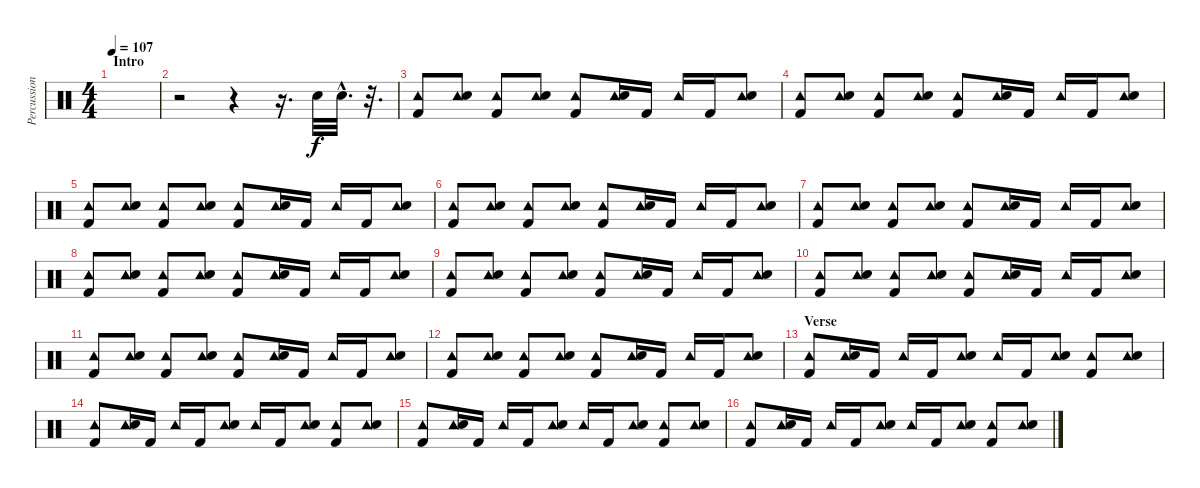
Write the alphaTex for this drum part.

\track ("Percussion" "Percussion") {instrument percussion}
\staff {score}
\articulation defaults
\ts (4 4)
\section ("" "Intro")
\tempo 107
\clef neutral
\ks c
|
r.2 r.4 r.16{d} "Electric Snare (hit)".32 "Electric Snare (hit)"{hac}.32{d} r.32{d} |
("Tambourine (hit)" "Kick (hit) 2").8 ("Tambourine (hit)" "Electric Snare (hit)").8 ("Tambourine (hit)" "Kick (hit) 2").8 ("Tambourine (hit)" "Electric Snare (hit)").8 ("Tambourine (hit)" "Kick (hit) 2").8 ("Tambourine (hit)" "Electric Snare (hit)").16 "Kick (hit) 2".16 "Tambourine (hit)".16 "Kick (hit) 2".16 ("Tambourine (hit)" "Electric Snare (hit)").8 |
("Tambourine (hit)" "Kick (hit) 2").8 ("Tambourine (hit)" "Electric Snare (hit)").8 ("Tambourine (hit)" "Kick (hit) 2").8 ("Tambourine (hit)" "Electric Snare (hit)").8 ("Tambourine (hit)" "Kick (hit) 2").8 ("Tambourine (hit)" "Electric Snare (hit)").16 "Kick (hit) 2".16 "Tambourine (hit)".16 "Kick (hit) 2".16 ("Tambourine (hit)" "Electric Snare (hit)").8 |
("Tambourine (hit)" "Kick (hit) 2").8 ("Tambourine (hit)" "Electric Snare (hit)").8 ("Tambourine (hit)" "Kick (hit) 2").8 ("Tambourine (hit)" "Electric Snare (hit)").8 ("Tambourine (hit)" "Kick (hit) 2").8 ("Tambourine (hit)" "Electric Snare (hit)").16 "Kick (hit) 2".16 "Tambourine (hit)".16 "Kick (hit) 2".16 ("Tambourine (hit)" "Electric Snare (hit)").8 |
("Tambourine (hit)" "Kick (hit) 2").8 ("Tambourine (hit)" "Electric Snare (hit)").8 ("Tambourine (hit)" "Kick (hit) 2").8 ("Tambourine (hit)" "Electric Snare (hit)").8 ("Tambourine (hit)" "Kick (hit) 2").8 ("Tambourine (hit)" "Electric Snare (hit)").16 "Kick (hit) 2".16 "Tambourine (hit)".16 "Kick (hit) 2".16 ("Tambourine (hit)" "Electric Snare (hit)").8 |
("Tambourine (hit)" "Kick (hit) 2").8 ("Tambourine (hit)" "Electric Snare (hit)").8 ("Tambourine (hit)" "Kick (hit) 2").8 ("Tambourine (hit)" "Electric Snare (hit)").8 ("Tambourine (hit)" "Kick (hit) 2").8 ("Tambourine (hit)" "Electric Snare (hit)").16 "Kick (hit) 2".16 "Tambourine (hit)".16 "Kick (hit) 2".16 ("Tambourine (hit)" "Electric Snare (hit)").8 |
("Tambourine (hit)" "Kick (hit) 2").8 ("Tambourine (hit)" "Electric Snare (hit)").8 ("Tambourine (hit)" "Kick (hit) 2").8 ("Tambourine (hit)" "Electric Snare (hit)").8 ("Tambourine (hit)" "Kick (hit) 2").8 ("Tambourine (hit)" "Electric Snare (hit)").16 "Kick (hit) 2".16 "Tambourine (hit)".16 "Kick (hit) 2".16 ("Tambourine (hit)" "Electric Snare (hit)").8 |
("Tambourine (hit)" "Kick (hit) 2").8 ("Tambourine (hit)" "Electric Snare (hit)").8 ("Tambourine (hit)" "Kick (hit) 2").8 ("Tambourine (hit)" "Electric Snare (hit)").8 ("Tambourine (hit)" "Kick (hit) 2").8 ("Tambourine (hit)" "Electric Snare (hit)").16 "Kick (hit) 2".16 "Tambourine (hit)".16 "Kick (hit) 2".16 ("Tambourine (hit)" "Electric Snare (hit)").8 |
("Tambourine (hit)" "Kick (hit) 2").8 ("Tambourine (hit)" "Electric Snare (hit)").8 ("Tambourine (hit)" "Kick (hit) 2").8 ("Tambourine (hit)" "Electric Snare (hit)").8 ("Tambourine (hit)" "Kick (hit) 2").8 ("Tambourine (hit)" "Electric Snare (hit)").16 "Kick (hit) 2".16 "Tambourine (hit)".16 "Kick (hit) 2".16 ("Tambourine (hit)" "Electric Snare (hit)").8 |
("Tambourine (hit)" "Kick (hit) 2").8 ("Tambourine (hit)" "Electric Snare (hit)").8 ("Tambourine (hit)" "Kick (hit) 2").8 ("Tambourine (hit)" "Electric Snare (hit)").8 ("Tambourine (hit)" "Kick (hit) 2").8 ("Tambourine (hit)" "Electric Snare (hit)").16 "Kick (hit) 2".16 "Tambourine (hit)".16 "Kick (hit) 2".16 ("Tambourine (hit)" "Electric Snare (hit)").8 |
("Tambourine (hit)" "Kick (hit) 2").8 ("Tambourine (hit)" "Electric Snare (hit)").8 ("Tambourine (hit)" "Kick (hit) 2").8 ("Tambourine (hit)" "Electric Snare (hit)").8 ("Tambourine (hit)" "Kick (hit) 2").8 ("Tambourine (hit)" "Electric Snare (hit)").16 "Kick (hit) 2".16 "Tambourine (hit)".16 "Kick (hit) 2".16 ("Tambourine (hit)" "Electric Snare (hit)").8 |
\section ("" "Verse")
("Tambourine (hit)" "Kick (hit) 2").8 ("Tambourine (hit)" "Electric Snare (hit)").16 "Kick (hit) 2".16 "Tambourine (hit)".16 "Kick (hit) 2".16 ("Tambourine (hit)" "Electric Snare (hit)").8 "Tambourine (hit)".16 "Kick (hit) 2".16 ("Tambourine (hit)" "Electric Snare (hit)").8 ("Tambourine (hit)" "Kick (hit) 2").8 ("Tambourine (hit)" "Electric Snare (hit)").8 |
("Tambourine (hit)" "Kick (hit) 2").8 ("Tambourine (hit)" "Electric Snare (hit)").16 "Kick (hit) 2".16 "Tambourine (hit)".16 "Kick (hit) 2".16 ("Tambourine (hit)" "Electric Snare (hit)").8 "Tambourine (hit)".16 "Kick (hit) 2".16 ("Tambourine (hit)" "Electric Snare (hit)").8 ("Tambourine (hit)" "Kick (hit) 2").8 ("Tambourine (hit)" "Electric Snare (hit)").8 |
("Tambourine (hit)" "Kick (hit) 2").8 ("Tambourine (hit)" "Electric Snare (hit)").16 "Kick (hit) 2".16 "Tambourine (hit)".16 "Kick (hit) 2".16 ("Tambourine (hit)" "Electric Snare (hit)").8 "Tambourine (hit)".16 "Kick (hit) 2".16 ("Tambourine (hit)" "Electric Snare (hit)").8 ("Tambourine (hit)" "Kick (hit) 2").8 ("Tambourine (hit)" "Electric Snare (hit)").8 |
("Tambourine (hit)" "Kick (hit) 2").8 ("Tambourine (hit)" "Electric Snare (hit)").16 "Kick (hit) 2".16 "Tambourine (hit)".16 "Kick (hit) 2".16 ("Tambourine (hit)" "Electric Snare (hit)").8 "Tambourine (hit)".16 "Kick (hit) 2".16 ("Tambourine (hit)" "Electric Snare (hit)").8 ("Tambourine (hit)" "Kick (hit) 2").8 ("Tambourine (hit)" "Electric Snare (hit)").8
